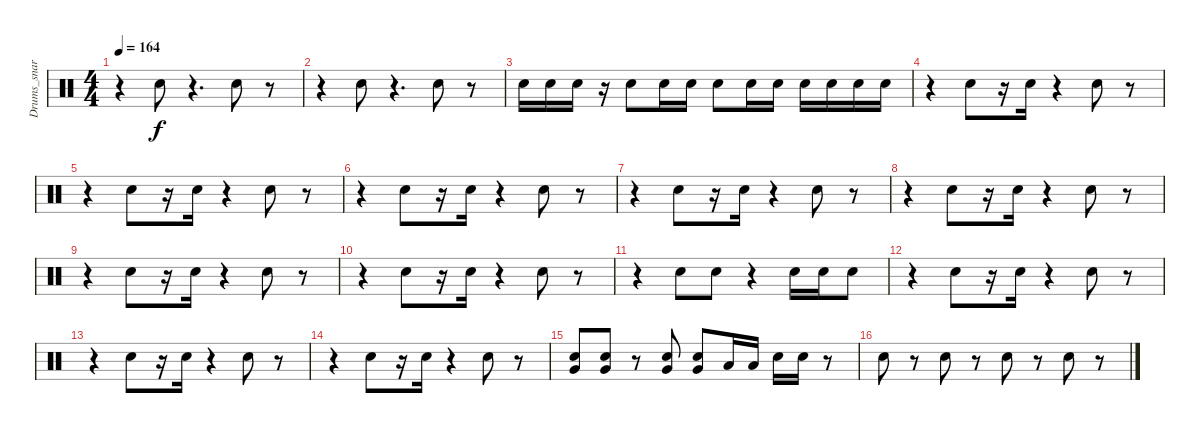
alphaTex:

\track ("Drums_snare&tom" "Drums_snar") {instrument percussion}
\staff {score}
\articulation defaults
\ts (4 4)
\tempo 164
\clef neutral
\ks c
r.4{dy f} "Snare (hit) 2".8 r.4{d} "Snare (hit) 2".8 r.8 |
r.4 "Snare (hit) 2".8 r.4{d} "Snare (hit) 2".8 r.8 |
"Snare (hit) 2".16 "Snare (hit) 2".16 "Snare (hit) 2".16 r.16 "Snare (hit) 2".8 "Snare (hit) 2".16 "Snare (hit) 2".16 "Snare (hit) 2".8 "Snare (hit) 2".16 "Snare (hit) 2".16 "Snare (hit) 2".16 "Snare (hit) 2".16 "Snare (hit) 2".16 "Snare (hit) 2".16 |
r.4 "Snare (hit) 2".8 r.16 "Snare (hit) 2".16 r.4 "Snare (hit) 2".8 r.8 |
r.4 "Snare (hit) 2".8 r.16 "Snare (hit) 2".16 r.4 "Snare (hit) 2".8 r.8 |
r.4 "Snare (hit) 2".8 r.16 "Snare (hit) 2".16 r.4 "Snare (hit) 2".8 r.8 |
r.4 "Snare (hit) 2".8 r.16 "Snare (hit) 2".16 r.4 "Snare (hit) 2".8 r.8 |
r.4 "Snare (hit) 2".8 r.16 "Snare (hit) 2".16 r.4 "Snare (hit) 2".8 r.8 |
r.4 "Snare (hit) 2".8 r.16 "Snare (hit) 2".16 r.4 "Snare (hit) 2".8 r.8 |
r.4 "Snare (hit) 2".8 r.16 "Snare (hit) 2".16 r.4 "Snare (hit) 2".8 r.8 |
r.4 "Snare (hit) 2".8 "Snare (hit) 2".8 r.4 "Snare (hit) 2".16 "Snare (hit) 2".16 "Snare (hit) 2".8 |
r.4 "Snare (hit) 2".8 r.16 "Snare (hit) 2".16 r.4 "Snare (hit) 2".8 r.8 |
r.4 "Snare (hit) 2".8 r.16 "Snare (hit) 2".16 r.4 "Snare (hit) 2".8 r.8 |
r.4 "Snare (hit) 2".8 r.16 "Snare (hit) 2".16 r.4 "Snare (hit) 2".8 r.8 |
("Snare (hit) 2" "Very Low Tom (hit)").8 ("Snare (hit) 2" "Very Low Tom (hit)").8 r.8 ("Snare (hit) 2" "Very Low Tom (hit)").8 ("Snare (hit) 2" "Very Low Tom (hit)").8 "Low Tom (hit)".16 "Low Tom (hit)".16 "Snare (hit) 2".16 "Snare (hit) 2".16 r.8 |
"Snare (hit) 2".8 r.8 "Snare (hit) 2".8 r.8 "Snare (hit) 2".8 r.8 "Snare (hit) 2".8 r.8
